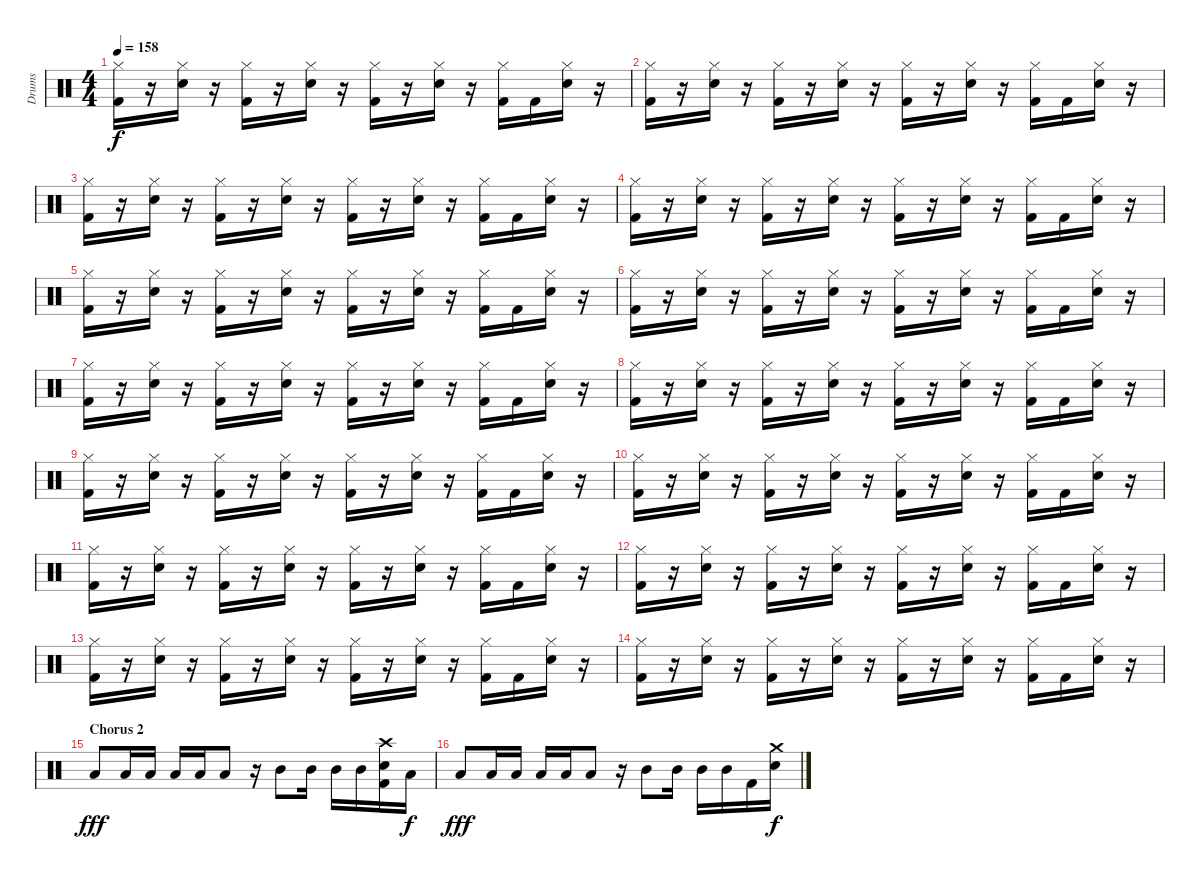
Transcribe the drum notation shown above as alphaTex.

\track ("Drums" "Drums") {instrument percussion}
\staff {score}
\articulation defaults
\ts (4 4)
\tempo 158
\clef neutral
\ks c
("Hi-Hat (closed)" "Kick (hit) 2").16{dy f} r.16 ("Hi-Hat (closed)" "Electric Snare (hit)").16 r.16 ("Hi-Hat (closed)" "Kick (hit) 2").16 r.16 ("Hi-Hat (closed)" "Electric Snare (hit)").16 r.16 ("Hi-Hat (closed)" "Kick (hit) 2").16 r.16 ("Hi-Hat (closed)" "Electric Snare (hit)").16 r.16 ("Hi-Hat (closed)" "Kick (hit) 2").16 "Kick (hit) 2".16 ("Hi-Hat (closed)" "Electric Snare (hit)").16 r.16 |
("Hi-Hat (closed)" "Kick (hit) 2").16 r.16 ("Hi-Hat (closed)" "Electric Snare (hit)").16 r.16 ("Hi-Hat (closed)" "Kick (hit) 2").16 r.16 ("Hi-Hat (closed)" "Electric Snare (hit)").16 r.16 ("Hi-Hat (closed)" "Kick (hit) 2").16 r.16 ("Hi-Hat (closed)" "Electric Snare (hit)").16 r.16 ("Hi-Hat (closed)" "Kick (hit) 2").16 "Kick (hit) 2".16 ("Hi-Hat (closed)" "Electric Snare (hit)").16 r.16 |
("Hi-Hat (closed)" "Kick (hit) 2").16 r.16 ("Hi-Hat (closed)" "Electric Snare (hit)").16 r.16 ("Hi-Hat (closed)" "Kick (hit) 2").16 r.16 ("Hi-Hat (closed)" "Electric Snare (hit)").16 r.16 ("Hi-Hat (closed)" "Kick (hit) 2").16 r.16 ("Hi-Hat (closed)" "Electric Snare (hit)").16 r.16 ("Hi-Hat (closed)" "Kick (hit) 2").16 "Kick (hit) 2".16 ("Hi-Hat (closed)" "Electric Snare (hit)").16 r.16 |
("Hi-Hat (closed)" "Kick (hit) 2").16 r.16 ("Hi-Hat (closed)" "Electric Snare (hit)").16 r.16 ("Hi-Hat (closed)" "Kick (hit) 2").16 r.16 ("Hi-Hat (closed)" "Electric Snare (hit)").16 r.16 ("Hi-Hat (closed)" "Kick (hit) 2").16 r.16 ("Hi-Hat (closed)" "Electric Snare (hit)").16 r.16 ("Hi-Hat (closed)" "Kick (hit) 2").16 "Kick (hit) 2".16 ("Hi-Hat (closed)" "Electric Snare (hit)").16 r.16 |
("Hi-Hat (closed)" "Kick (hit) 2").16 r.16 ("Hi-Hat (closed)" "Electric Snare (hit)").16 r.16 ("Hi-Hat (closed)" "Kick (hit) 2").16 r.16 ("Hi-Hat (closed)" "Electric Snare (hit)").16 r.16 ("Hi-Hat (closed)" "Kick (hit) 2").16 r.16 ("Hi-Hat (closed)" "Electric Snare (hit)").16 r.16 ("Hi-Hat (closed)" "Kick (hit) 2").16 "Kick (hit) 2".16 ("Hi-Hat (closed)" "Electric Snare (hit)").16 r.16 |
("Hi-Hat (closed)" "Kick (hit) 2").16 r.16 ("Hi-Hat (closed)" "Electric Snare (hit)").16 r.16 ("Hi-Hat (closed)" "Kick (hit) 2").16 r.16 ("Hi-Hat (closed)" "Electric Snare (hit)").16 r.16 ("Hi-Hat (closed)" "Kick (hit) 2").16 r.16 ("Hi-Hat (closed)" "Electric Snare (hit)").16 r.16 ("Hi-Hat (closed)" "Kick (hit) 2").16 "Kick (hit) 2".16 ("Hi-Hat (closed)" "Electric Snare (hit)").16 r.16 |
("Hi-Hat (closed)" "Kick (hit) 2").16 r.16 ("Hi-Hat (closed)" "Electric Snare (hit)").16 r.16 ("Hi-Hat (closed)" "Kick (hit) 2").16 r.16 ("Hi-Hat (closed)" "Electric Snare (hit)").16 r.16 ("Hi-Hat (closed)" "Kick (hit) 2").16 r.16 ("Hi-Hat (closed)" "Electric Snare (hit)").16 r.16 ("Hi-Hat (closed)" "Kick (hit) 2").16 "Kick (hit) 2".16 ("Hi-Hat (closed)" "Electric Snare (hit)").16 r.16 |
("Hi-Hat (closed)" "Kick (hit) 2").16 r.16 ("Hi-Hat (closed)" "Electric Snare (hit)").16 r.16 ("Hi-Hat (closed)" "Kick (hit) 2").16 r.16 ("Hi-Hat (closed)" "Electric Snare (hit)").16 r.16 ("Hi-Hat (closed)" "Kick (hit) 2").16 r.16 ("Hi-Hat (closed)" "Electric Snare (hit)").16 r.16 ("Hi-Hat (closed)" "Kick (hit) 2").16 "Kick (hit) 2".16 ("Hi-Hat (closed)" "Electric Snare (hit)").16 r.16 |
("Hi-Hat (closed)" "Kick (hit) 2").16 r.16 ("Hi-Hat (closed)" "Electric Snare (hit)").16 r.16 ("Hi-Hat (closed)" "Kick (hit) 2").16 r.16 ("Hi-Hat (closed)" "Electric Snare (hit)").16 r.16 ("Hi-Hat (closed)" "Kick (hit) 2").16 r.16 ("Hi-Hat (closed)" "Electric Snare (hit)").16 r.16 ("Hi-Hat (closed)" "Kick (hit) 2").16 "Kick (hit) 2".16 ("Hi-Hat (closed)" "Electric Snare (hit)").16 r.16 |
("Hi-Hat (closed)" "Kick (hit) 2").16 r.16 ("Hi-Hat (closed)" "Electric Snare (hit)").16 r.16 ("Hi-Hat (closed)" "Kick (hit) 2").16 r.16 ("Hi-Hat (closed)" "Electric Snare (hit)").16 r.16 ("Hi-Hat (closed)" "Kick (hit) 2").16 r.16 ("Hi-Hat (closed)" "Electric Snare (hit)").16 r.16 ("Hi-Hat (closed)" "Kick (hit) 2").16 "Kick (hit) 2".16 ("Hi-Hat (closed)" "Electric Snare (hit)").16 r.16 |
("Hi-Hat (closed)" "Kick (hit) 2").16 r.16 ("Hi-Hat (closed)" "Electric Snare (hit)").16 r.16 ("Hi-Hat (closed)" "Kick (hit) 2").16 r.16 ("Hi-Hat (closed)" "Electric Snare (hit)").16 r.16 ("Hi-Hat (closed)" "Kick (hit) 2").16 r.16 ("Hi-Hat (closed)" "Electric Snare (hit)").16 r.16 ("Hi-Hat (closed)" "Kick (hit) 2").16 "Kick (hit) 2".16 ("Hi-Hat (closed)" "Electric Snare (hit)").16 r.16 |
("Hi-Hat (closed)" "Kick (hit) 2").16 r.16 ("Hi-Hat (closed)" "Electric Snare (hit)").16 r.16 ("Hi-Hat (closed)" "Kick (hit) 2").16 r.16 ("Hi-Hat (closed)" "Electric Snare (hit)").16 r.16 ("Hi-Hat (closed)" "Kick (hit) 2").16 r.16 ("Hi-Hat (closed)" "Electric Snare (hit)").16 r.16 ("Hi-Hat (closed)" "Kick (hit) 2").16 "Kick (hit) 2".16 ("Hi-Hat (closed)" "Electric Snare (hit)").16 r.16 |
("Hi-Hat (closed)" "Kick (hit) 2").16 r.16 ("Hi-Hat (closed)" "Electric Snare (hit)").16 r.16 ("Hi-Hat (closed)" "Kick (hit) 2").16 r.16 ("Hi-Hat (closed)" "Electric Snare (hit)").16 r.16 ("Hi-Hat (closed)" "Kick (hit) 2").16 r.16 ("Hi-Hat (closed)" "Electric Snare (hit)").16 r.16 ("Hi-Hat (closed)" "Kick (hit) 2").16 "Kick (hit) 2".16 ("Hi-Hat (closed)" "Electric Snare (hit)").16 r.16 |
("Hi-Hat (closed)" "Kick (hit) 2").16 r.16 ("Hi-Hat (closed)" "Electric Snare (hit)").16 r.16 ("Hi-Hat (closed)" "Kick (hit) 2").16 r.16 ("Hi-Hat (closed)" "Electric Snare (hit)").16 r.16 ("Hi-Hat (closed)" "Kick (hit) 2").16 r.16 ("Hi-Hat (closed)" "Electric Snare (hit)").16 r.16 ("Hi-Hat (closed)" "Kick (hit) 2").16 "Kick (hit) 2".16 ("Hi-Hat (closed)" "Electric Snare (hit)").16 r.16 |
\section ("" "Chorus 2")
"Low Tom (hit)".8{dy fff} "Low Tom (hit)".16 "Low Tom (hit)".16 "Low Tom (hit)".16 "Low Tom (hit)".16 "Low Tom (hit)".8 r.16 "Mid Tom (hit)".8 "Mid Tom (hit)".16 "Mid Tom (hit)".16 "Mid Tom (hit)".16 ("Crash high (hit)" "Electric Snare (hit)" "Kick (hit) 2").16 "Low Tom (hit)".16{dy f} |
"Low Tom (hit)".8{dy fff} "Low Tom (hit)".16 "Low Tom (hit)".16 "Low Tom (hit)".16 "Low Tom (hit)".16 "Low Tom (hit)".8 r.16 "Mid Tom (hit)".8 "Mid Tom (hit)".16 "Mid Tom (hit)".16 "Mid Tom (hit)".16 "Kick (hit) 2".16 ("Crash medium (hit)" "Electric Snare (hit)").16{dy f}
